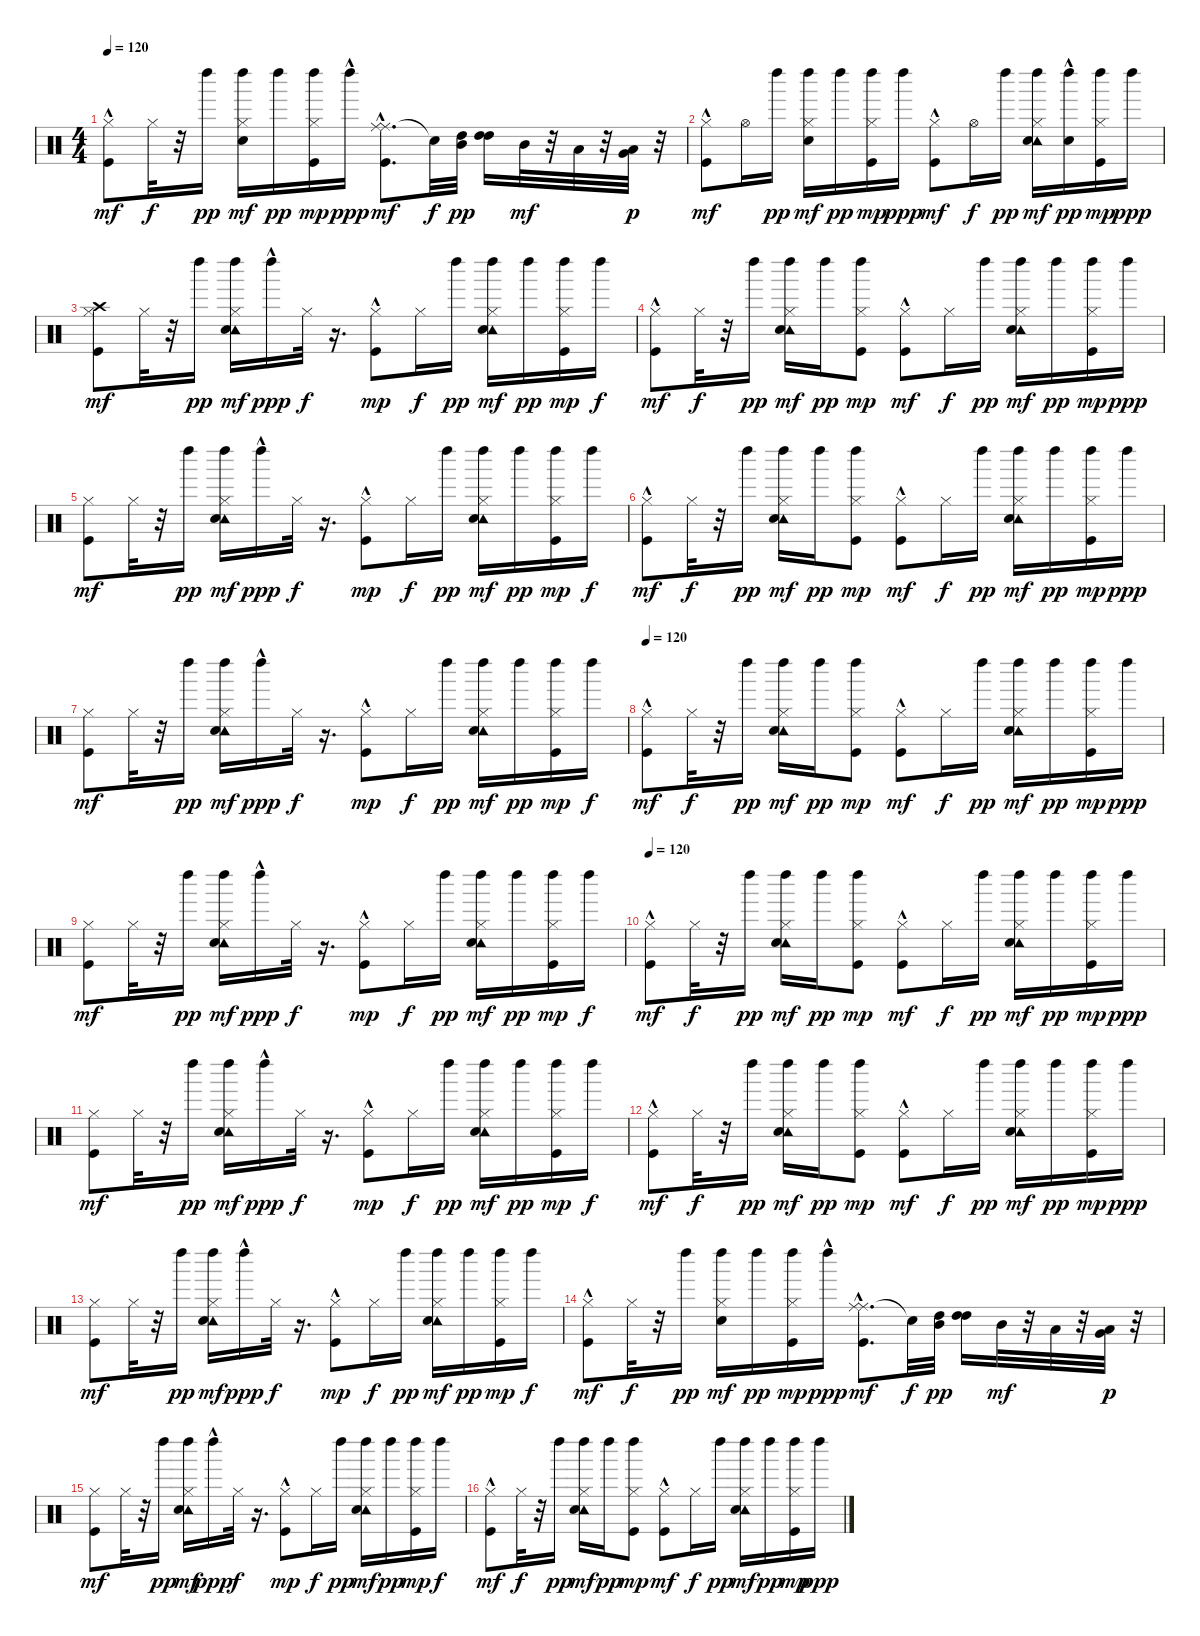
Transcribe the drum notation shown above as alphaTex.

\track "" {instrument percussion}
\staff {score}
\articulation defaults
\ts (4 4)
\tempo 120
\clef neutral
\ks c
("Kick (hit)"{hac} "Hi-Hat (closed)").8{dy mf} "Hi-Hat (closed)".32{dy f} r.32 "Left Maraca (hit)".16{dy pp} ("Left Maraca (hit)" "Hi-Hat (closed)" "Electric Snare (hit)").16{dy mf} "Left Maraca (hit)".16{dy pp} ("Left Maraca (hit)" "Hi-Hat (closed)" "Kick (hit)").16{dy mp} "Left Maraca (hit)"{hac}.16{dy ppp} ("Ride (middle)" "Kick (hit)"{hac} "Ride (middle)").8{d dy mf} "Snare (hit)"{t}.32{dy f} ("High Tom (hit)" "Mid Tom (hit)").32{dy pp} ("High Tom (hit)" "High Tom (hit)").16 "Mid Tom (hit)".32{dy mf} r.32 "Low Tom (hit)".32 r.32 ("Low Tom (hit)" "Very Low Tom (hit)").32{dy p} r.32 |
("Kick (hit)"{hac} "Hi-Hat (closed)").8{dy mf} "Hi-Hat (open)".16 "Left Maraca (hit)".16{dy pp} ("Left Maraca (hit)" "Hi-Hat (closed)" "Electric Snare (hit)").16{dy mf} "Left Maraca (hit)".16{dy pp} ("Left Maraca (hit)" "Hi-Hat (closed)" "Kick (hit)").16{dy mp} "Left Maraca (hit)".16{dy ppp} ("Kick (hit)"{hac} "Hi-Hat (closed)").8{dy mf} "Hi-Hat (open)".16{dy f} "Left Maraca (hit)".16{dy pp} ("Left Maraca (hit)" "Tambourine (hit)" "Electric Snare (hit)" "Hi-Hat (closed)").16{dy mf} ("Electric Snare (hit)"{hac} "Left Maraca (hit)").16{dy pp} ("Left Maraca (hit)" "Kick (hit)" "Hi-Hat (closed)").16{dy mp} "Left Maraca (hit)".16{dy ppp} |
("Crash high (hit)" "Kick (hit)" "Hi-Hat (closed)").8{dy mf} "Hi-Hat (closed)".32 r.32 "Left Maraca (hit)".16{dy pp} ("Left Maraca (hit)" "Tambourine (hit)" "Electric Snare (hit)" "Hi-Hat (closed)").16{dy mf} "Left Maraca (hit)"{hac}.16{dy ppp} "Hi-Hat (closed)".32{dy f} r.16{d} ("Hi-Hat (closed)" "Kick (hit)"{hac}).8{dy mp} "Hi-Hat (closed)".16{dy f} "Left Maraca (hit)".16{dy pp} ("Left Maraca (hit)" "Tambourine (hit)" "Electric Snare (hit)" "Hi-Hat (closed)").16{dy mf} "Left Maraca (hit)".16{dy pp} ("Left Maraca (hit)" "Kick (hit)" "Hi-Hat (closed)").16{dy mp} "Left Maraca (hit)".16{dy f} |
("Kick (hit)"{hac} "Hi-Hat (closed)").8{dy mf} "Hi-Hat (closed)".32{dy f} r.32 "Left Maraca (hit)".16{dy pp} ("Left Maraca (hit)" "Tambourine (hit)" "Hi-Hat (closed)" "Electric Snare (hit)").16{dy mf} "Left Maraca (hit)".16{dy pp} ("Left Maraca (hit)" "Hi-Hat (closed)" "Kick (hit)").8{dy mp} ("Kick (hit)"{hac} "Hi-Hat (closed)").8{dy mf} "Hi-Hat (closed)".16{dy f} "Left Maraca (hit)".16{dy pp} ("Left Maraca (hit)" "Tambourine (hit)" "Electric Snare (hit)" "Hi-Hat (closed)").16{dy mf} "Left Maraca (hit)".16{dy pp} ("Left Maraca (hit)" "Kick (hit)" "Hi-Hat (closed)").16{dy mp} "Left Maraca (hit)".16{dy ppp} |
("Kick (hit)" "Hi-Hat (closed)").8{dy mf} "Hi-Hat (closed)".32 r.32 "Left Maraca (hit)".16{dy pp} ("Left Maraca (hit)" "Tambourine (hit)" "Electric Snare (hit)" "Hi-Hat (closed)").16{dy mf} "Left Maraca (hit)"{hac}.16{dy ppp} "Hi-Hat (closed)".32{dy f} r.16{d} ("Hi-Hat (closed)" "Kick (hit)"{hac}).8{dy mp} "Hi-Hat (closed)".16{dy f} "Left Maraca (hit)".16{dy pp} ("Left Maraca (hit)" "Tambourine (hit)" "Electric Snare (hit)" "Hi-Hat (closed)").16{dy mf} "Left Maraca (hit)".16{dy pp} ("Left Maraca (hit)" "Kick (hit)" "Hi-Hat (closed)").16{dy mp} "Left Maraca (hit)".16{dy f} |
("Kick (hit)"{hac} "Hi-Hat (closed)").8{dy mf} "Hi-Hat (closed)".32{dy f} r.32 "Left Maraca (hit)".16{dy pp} ("Left Maraca (hit)" "Tambourine (hit)" "Hi-Hat (closed)" "Electric Snare (hit)").16{dy mf} "Left Maraca (hit)".16{dy pp} ("Left Maraca (hit)" "Hi-Hat (closed)" "Kick (hit)").8{dy mp} ("Kick (hit)"{hac} "Hi-Hat (closed)").8{dy mf} "Hi-Hat (closed)".16{dy f} "Left Maraca (hit)".16{dy pp} ("Left Maraca (hit)" "Tambourine (hit)" "Electric Snare (hit)" "Hi-Hat (closed)").16{dy mf} "Left Maraca (hit)".16{dy pp} ("Left Maraca (hit)" "Kick (hit)" "Hi-Hat (closed)").16{dy mp} "Left Maraca (hit)".16{dy ppp} |
("Kick (hit)" "Hi-Hat (closed)").8{dy mf} "Hi-Hat (closed)".32 r.32 "Left Maraca (hit)".16{dy pp} ("Left Maraca (hit)" "Tambourine (hit)" "Electric Snare (hit)" "Hi-Hat (closed)").16{dy mf} "Left Maraca (hit)"{hac}.16{dy ppp} "Hi-Hat (closed)".32{dy f} r.16{d} ("Hi-Hat (closed)" "Kick (hit)"{hac}).8{dy mp} "Hi-Hat (closed)".16{dy f} "Left Maraca (hit)".16{dy pp} ("Left Maraca (hit)" "Tambourine (hit)" "Electric Snare (hit)" "Hi-Hat (closed)").16{dy mf} "Left Maraca (hit)".16{dy pp} ("Left Maraca (hit)" "Kick (hit)" "Hi-Hat (closed)").16{dy mp} "Left Maraca (hit)".16{dy f} |
\tempo 120
("Kick (hit)"{hac} "Hi-Hat (closed)").8{dy mf} "Hi-Hat (closed)".32{dy f} r.32 "Left Maraca (hit)".16{dy pp} ("Left Maraca (hit)" "Tambourine (hit)" "Hi-Hat (closed)" "Electric Snare (hit)").16{dy mf} "Left Maraca (hit)".16{dy pp} ("Left Maraca (hit)" "Hi-Hat (closed)" "Kick (hit)").8{dy mp} ("Kick (hit)"{hac} "Hi-Hat (closed)").8{dy mf} "Hi-Hat (closed)".16{dy f} "Left Maraca (hit)".16{dy pp} ("Left Maraca (hit)" "Tambourine (hit)" "Electric Snare (hit)" "Hi-Hat (closed)").16{dy mf} "Left Maraca (hit)".16{dy pp} ("Left Maraca (hit)" "Kick (hit)" "Hi-Hat (closed)").16{dy mp} "Left Maraca (hit)".16{dy ppp} |
("Kick (hit)" "Hi-Hat (closed)").8{dy mf} "Hi-Hat (closed)".32 r.32 "Left Maraca (hit)".16{dy pp} ("Left Maraca (hit)" "Tambourine (hit)" "Electric Snare (hit)" "Hi-Hat (closed)").16{dy mf} "Left Maraca (hit)"{hac}.16{dy ppp} "Hi-Hat (closed)".32{dy f} r.16{d} ("Hi-Hat (closed)" "Kick (hit)"{hac}).8{dy mp} "Hi-Hat (closed)".16{dy f} "Left Maraca (hit)".16{dy pp} ("Left Maraca (hit)" "Tambourine (hit)" "Electric Snare (hit)" "Hi-Hat (closed)").16{dy mf} "Left Maraca (hit)".16{dy pp} ("Left Maraca (hit)" "Kick (hit)" "Hi-Hat (closed)").16{dy mp} "Left Maraca (hit)".16{dy f} |
\tempo 120
("Kick (hit)"{hac} "Hi-Hat (closed)").8{dy mf} "Hi-Hat (closed)".32{dy f} r.32 "Left Maraca (hit)".16{dy pp} ("Left Maraca (hit)" "Tambourine (hit)" "Hi-Hat (closed)" "Electric Snare (hit)").16{dy mf} "Left Maraca (hit)".16{dy pp} ("Left Maraca (hit)" "Hi-Hat (closed)" "Kick (hit)").8{dy mp} ("Kick (hit)"{hac} "Hi-Hat (closed)").8{dy mf} "Hi-Hat (closed)".16{dy f} "Left Maraca (hit)".16{dy pp} ("Left Maraca (hit)" "Tambourine (hit)" "Electric Snare (hit)" "Hi-Hat (closed)").16{dy mf} "Left Maraca (hit)".16{dy pp} ("Left Maraca (hit)" "Kick (hit)" "Hi-Hat (closed)").16{dy mp} "Left Maraca (hit)".16{dy ppp} |
("Kick (hit)" "Hi-Hat (closed)").8{dy mf} "Hi-Hat (closed)".32 r.32 "Left Maraca (hit)".16{dy pp} ("Left Maraca (hit)" "Tambourine (hit)" "Electric Snare (hit)" "Hi-Hat (closed)").16{dy mf} "Left Maraca (hit)"{hac}.16{dy ppp} "Hi-Hat (closed)".32{dy f} r.16{d} ("Hi-Hat (closed)" "Kick (hit)"{hac}).8{dy mp} "Hi-Hat (closed)".16{dy f} "Left Maraca (hit)".16{dy pp} ("Left Maraca (hit)" "Tambourine (hit)" "Electric Snare (hit)" "Hi-Hat (closed)").16{dy mf} "Left Maraca (hit)".16{dy pp} ("Left Maraca (hit)" "Kick (hit)" "Hi-Hat (closed)").16{dy mp} "Left Maraca (hit)".16{dy f} |
("Kick (hit)"{hac} "Hi-Hat (closed)").8{dy mf} "Hi-Hat (closed)".32{dy f} r.32 "Left Maraca (hit)".16{dy pp} ("Left Maraca (hit)" "Tambourine (hit)" "Hi-Hat (closed)" "Electric Snare (hit)").16{dy mf} "Left Maraca (hit)".16{dy pp} ("Left Maraca (hit)" "Hi-Hat (closed)" "Kick (hit)").8{dy mp} ("Kick (hit)"{hac} "Hi-Hat (closed)").8{dy mf} "Hi-Hat (closed)".16{dy f} "Left Maraca (hit)".16{dy pp} ("Left Maraca (hit)" "Tambourine (hit)" "Electric Snare (hit)" "Hi-Hat (closed)").16{dy mf} "Left Maraca (hit)".16{dy pp} ("Left Maraca (hit)" "Kick (hit)" "Hi-Hat (closed)").16{dy mp} "Left Maraca (hit)".16{dy ppp} |
("Kick (hit)" "Hi-Hat (closed)").8{dy mf} "Hi-Hat (closed)".32 r.32 "Left Maraca (hit)".16{dy pp} ("Left Maraca (hit)" "Tambourine (hit)" "Electric Snare (hit)" "Hi-Hat (closed)").16{dy mf} "Left Maraca (hit)"{hac}.16{dy ppp} "Hi-Hat (closed)".32{dy f} r.16{d} ("Hi-Hat (closed)" "Kick (hit)"{hac}).8{dy mp} "Hi-Hat (closed)".16{dy f} "Left Maraca (hit)".16{dy pp} ("Left Maraca (hit)" "Tambourine (hit)" "Electric Snare (hit)" "Hi-Hat (closed)").16{dy mf} "Left Maraca (hit)".16{dy pp} ("Left Maraca (hit)" "Kick (hit)" "Hi-Hat (closed)").16{dy mp} "Left Maraca (hit)".16{dy f} |
("Kick (hit)"{hac} "Hi-Hat (closed)").8{dy mf} "Hi-Hat (closed)".32{dy f} r.32 "Left Maraca (hit)".16{dy pp} ("Left Maraca (hit)" "Hi-Hat (closed)" "Electric Snare (hit)").16{dy mf} "Left Maraca (hit)".16{dy pp} ("Left Maraca (hit)" "Hi-Hat (closed)" "Kick (hit)").16{dy mp} "Left Maraca (hit)"{hac}.16{dy ppp} ("Ride (middle)" "Kick (hit)"{hac} "Ride (middle)").8{d dy mf} "Snare (hit)"{t}.32{dy f} ("High Tom (hit)" "Mid Tom (hit)").32{dy pp} ("High Tom (hit)" "High Tom (hit)").16 "Mid Tom (hit)".32{dy mf} r.32 "Low Tom (hit)".32 r.32 ("Low Tom (hit)" "Very Low Tom (hit)").32{dy p} r.32 |
("Kick (hit)" "Hi-Hat (closed)").8{dy mf} "Hi-Hat (closed)".32 r.32 "Left Maraca (hit)".16{dy pp} ("Left Maraca (hit)" "Tambourine (hit)" "Electric Snare (hit)" "Hi-Hat (closed)").16{dy mf} "Left Maraca (hit)"{hac}.16{dy ppp} "Hi-Hat (closed)".32{dy f} r.16{d} ("Hi-Hat (closed)" "Kick (hit)"{hac}).8{dy mp} "Hi-Hat (closed)".16{dy f} "Left Maraca (hit)".16{dy pp} ("Left Maraca (hit)" "Tambourine (hit)" "Electric Snare (hit)" "Hi-Hat (closed)").16{dy mf} "Left Maraca (hit)".16{dy pp} ("Left Maraca (hit)" "Kick (hit)" "Hi-Hat (closed)").16{dy mp} "Left Maraca (hit)".16{dy f} |
("Kick (hit)"{hac} "Hi-Hat (closed)").8{dy mf} "Hi-Hat (closed)".32{dy f} r.32 "Left Maraca (hit)".16{dy pp} ("Left Maraca (hit)" "Tambourine (hit)" "Hi-Hat (closed)" "Electric Snare (hit)").16{dy mf} "Left Maraca (hit)".16{dy pp} ("Left Maraca (hit)" "Hi-Hat (closed)" "Kick (hit)").8{dy mp} ("Kick (hit)"{hac} "Hi-Hat (closed)").8{dy mf} "Hi-Hat (closed)".16{dy f} "Left Maraca (hit)".16{dy pp} ("Left Maraca (hit)" "Tambourine (hit)" "Electric Snare (hit)" "Hi-Hat (closed)").16{dy mf} "Left Maraca (hit)".16{dy pp} ("Left Maraca (hit)" "Kick (hit)" "Hi-Hat (closed)").16{dy mp} "Left Maraca (hit)".16{dy ppp}
